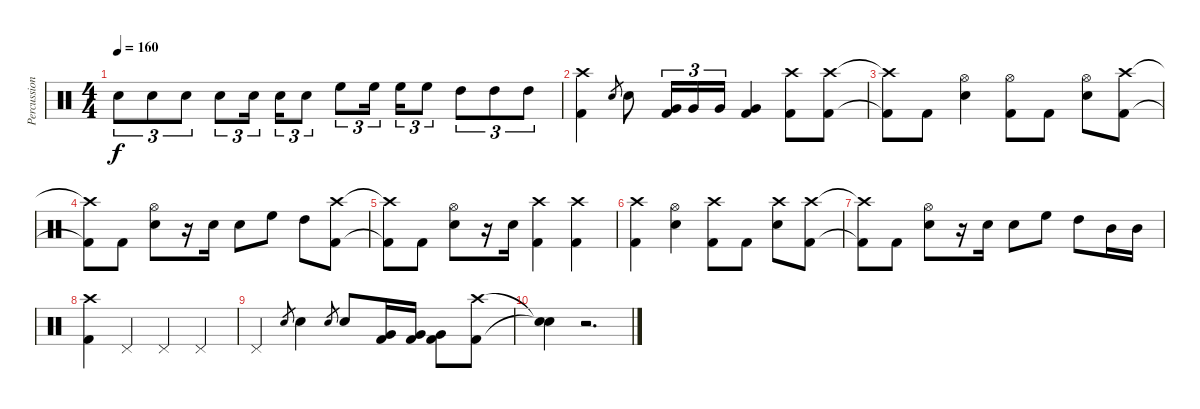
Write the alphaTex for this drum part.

\track ("Percussion" "Percussion") {instrument percussion}
\staff {score}
\articulation defaults
\ts (4 4)
\tempo 160
\clef neutral
\ks c "Snare (hit) 2".8{tu (3 2) dy f} "Snare (hit) 2".8{tu (3 2)} "Snare (hit) 2".8{tu (3 2)} "Snare (hit) 2".8{tu (3 2)} "Snare (hit) 2".16{tu (3 2)} "Snare (hit) 2".16{tu (3 2)} "Snare (hit) 2".8{tu (3 2)} "High Floor Tom (hit)".8{tu (3 2)} "High Floor Tom (hit)".16{tu (3 2)} "High Floor Tom (hit)".16{tu (3 2)} "High Floor Tom (hit)".8{tu (3 2)} "High Tom (hit)".8{tu (3 2)} "High Tom (hit)".8{tu (3 2)} "High Tom (hit)".8{tu (3 2)}
|
("Crash high (hit)" "Kick (hit) 2").4 "Snare (hit) 2".8{gr} "Snare (hit) 2".8 ("Very Low Tom (hit)" "Kick (hit) 2").16{tu (3 2)} "Very Low Tom (hit)".16{tu (3 2)} "Very Low Tom (hit)".16{tu (3 2)} ("Very Low Tom (hit)" "Kick (hit) 2").4 ("Crash high (hit)" "Kick (hit) 2").8 ("Crash high (hit)" "Kick (hit) 2").8 |
("Crash high (hit)"{t} "Kick (hit) 2"{t}).8 "Kick (hit) 2".8 ("Hi-Hat (open)" "Snare (hit) 2").4 ("Hi-Hat (open)" "Kick (hit) 2").8 "Kick (hit) 2".8 ("Hi-Hat (open)" "Snare (hit) 2").8 ("Crash high (hit)" "Kick (hit) 2").8 |
("Crash high (hit)"{t} "Kick (hit) 2"{t}).8 "Kick (hit) 2".8 ("Hi-Hat (open)" "Snare (hit) 2").8 r.16 "Snare (hit) 2".16 "Snare (hit) 2".8 "High Floor Tom (hit)".8 "High Tom (hit)".8 ("Crash high (hit)" "Kick (hit) 2").8 |
("Crash high (hit)"{t} "Kick (hit) 2"{t}).8 "Kick (hit) 2".8 ("Hi-Hat (open)" "Snare (hit) 2").8 r.16 "Snare (hit) 2".16 ("Crash high (hit)" "Kick (hit) 2").4 ("Crash high (hit)" "Kick (hit) 2").4 |
("Crash high (hit)" "Kick (hit) 2").4 ("Hi-Hat (open)" "Snare (hit) 2").4 ("Crash high (hit)" "Kick (hit) 2").8 "Kick (hit) 2".8 ("Crash high (hit)" "Snare (hit) 2").8 ("Crash high (hit)" "Kick (hit) 2").8 |
("Crash high (hit)"{t} "Kick (hit) 2"{t}).8 "Kick (hit) 2".8 ("Hi-Hat (open)" "Snare (hit) 2").8 r.16 "Snare (hit) 2".16 "Snare (hit) 2".8 "High Floor Tom (hit)".8 "High Tom (hit)".8 "Mid Tom (hit)".16 "Mid Tom (hit)".16 |
("Crash high (hit)" "Kick (hit) 2").4 "Pedal Hi-Hat (hit)".4 "Pedal Hi-Hat (hit)".4 "Pedal Hi-Hat (hit)".4 |
"Pedal Hi-Hat (hit)".4 "Snare (hit) 2".8{gr} "Snare (hit) 2".4 "Snare (hit) 2".8{gr} "Snare (hit) 2".8 ("Very Low Tom (hit)" "Kick (hit) 2").16 ("Very Low Tom (hit)" "Kick (hit) 2").16 ("Very Low Tom (hit)" "Kick (hit) 2").8 ("Crash high (hit)" "Kick (hit) 2").8 |
("Snare (hit)"{t} "Snare (hit)"{t}).4 r.2{d}
